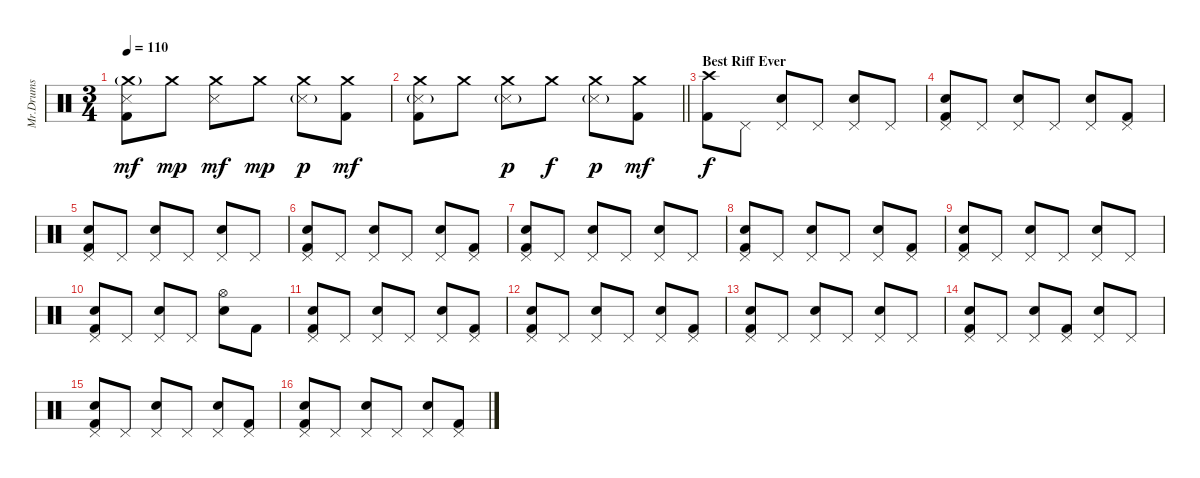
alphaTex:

\track ("Mr.Drums" "Mr.Drums") {instrument percussion}
\staff {score}
\articulation defaults
\ts (3 4)
\tempo 110
\clef neutral
\ks c
("Crash medium (hit)"{g} "Snare (side stick) 3" "Kick (hit) 2").8{dy mf} "Crash medium (hit)".8{dy mp} ("Crash medium (hit)" "Snare (side stick) 3").8{dy mf} "Crash medium (hit)".8{dy mp} ("Crash medium (hit)" "Snare (side stick) 3"{g}).8{dy p} ("Crash medium (hit)" "Kick (hit) 2").8{dy mf} |
\barLineRight lightlight
("Crash medium (hit)" "Snare (side stick) 3"{g} "Kick (hit) 2").8 "Crash medium (hit)".8 ("Crash medium (hit)" "Snare (side stick) 3"{g}).8{dy p} "Crash medium (hit)".8{dy f} ("Crash medium (hit)" "Snare (side stick) 3"{g}).8{dy p} ("Crash medium (hit)" "Kick (hit) 2").8{dy mf} |
\section ("" "Best Riff Ever")
("Crash high (hit)" "Kick (hit) 2").8{dy f} "Pedal Hi-Hat (hit)".8 ("Pedal Hi-Hat (hit)" "Electric Snare (hit)").8 "Pedal Hi-Hat (hit)".8 ("Pedal Hi-Hat (hit)" "Electric Snare (hit)").8 "Pedal Hi-Hat (hit)".8 |
("Pedal Hi-Hat (hit)" "Electric Snare (hit)" "Kick (hit) 2").8 "Pedal Hi-Hat (hit)".8 ("Pedal Hi-Hat (hit)" "Electric Snare (hit)").8 "Pedal Hi-Hat (hit)".8 ("Pedal Hi-Hat (hit)" "Electric Snare (hit)").8 ("Pedal Hi-Hat (hit)" "Kick (hit) 2").8 |
("Pedal Hi-Hat (hit)" "Electric Snare (hit)" "Kick (hit) 2").8 "Pedal Hi-Hat (hit)".8 ("Pedal Hi-Hat (hit)" "Electric Snare (hit)").8 "Pedal Hi-Hat (hit)".8 ("Pedal Hi-Hat (hit)" "Electric Snare (hit)").8 "Pedal Hi-Hat (hit)".8 |
("Pedal Hi-Hat (hit)" "Electric Snare (hit)" "Kick (hit) 2").8 "Pedal Hi-Hat (hit)".8 ("Pedal Hi-Hat (hit)" "Electric Snare (hit)").8 "Pedal Hi-Hat (hit)".8 ("Pedal Hi-Hat (hit)" "Electric Snare (hit)").8 ("Pedal Hi-Hat (hit)" "Kick (hit) 2").8 |
("Pedal Hi-Hat (hit)" "Electric Snare (hit)" "Kick (hit) 2").8 "Pedal Hi-Hat (hit)".8 ("Pedal Hi-Hat (hit)" "Electric Snare (hit)").8 "Pedal Hi-Hat (hit)".8 ("Pedal Hi-Hat (hit)" "Electric Snare (hit)").8 "Pedal Hi-Hat (hit)".8 |
("Pedal Hi-Hat (hit)" "Electric Snare (hit)" "Kick (hit) 2").8 "Pedal Hi-Hat (hit)".8 ("Pedal Hi-Hat (hit)" "Electric Snare (hit)").8 "Pedal Hi-Hat (hit)".8 ("Pedal Hi-Hat (hit)" "Electric Snare (hit)").8 ("Pedal Hi-Hat (hit)" "Kick (hit) 2").8 |
("Pedal Hi-Hat (hit)" "Electric Snare (hit)" "Kick (hit) 2").8 "Pedal Hi-Hat (hit)".8 ("Pedal Hi-Hat (hit)" "Electric Snare (hit)").8 "Pedal Hi-Hat (hit)".8 ("Pedal Hi-Hat (hit)" "Electric Snare (hit)").8 "Pedal Hi-Hat (hit)".8 |
("Pedal Hi-Hat (hit)" "Electric Snare (hit)" "Kick (hit) 2").8 "Pedal Hi-Hat (hit)".8 ("Pedal Hi-Hat (hit)" "Electric Snare (hit)").8 "Pedal Hi-Hat (hit)".8 ("Hi-Hat (open)" "Electric Snare (hit)").8 "Kick (hit) 2".8 |
("Pedal Hi-Hat (hit)" "Electric Snare (hit)" "Kick (hit) 2").8 "Pedal Hi-Hat (hit)".8 ("Pedal Hi-Hat (hit)" "Electric Snare (hit)").8 "Pedal Hi-Hat (hit)".8 ("Pedal Hi-Hat (hit)" "Electric Snare (hit)").8 ("Pedal Hi-Hat (hit)" "Kick (hit) 2").8 |
("Pedal Hi-Hat (hit)" "Electric Snare (hit)" "Kick (hit) 2").8 "Pedal Hi-Hat (hit)".8 ("Pedal Hi-Hat (hit)" "Electric Snare (hit)").8 "Pedal Hi-Hat (hit)".8 ("Pedal Hi-Hat (hit)" "Electric Snare (hit)").8 ("Pedal Hi-Hat (hit)" "Kick (hit) 2").8 |
("Pedal Hi-Hat (hit)" "Electric Snare (hit)" "Kick (hit) 2").8 "Pedal Hi-Hat (hit)".8 ("Pedal Hi-Hat (hit)" "Electric Snare (hit)").8 "Pedal Hi-Hat (hit)".8 ("Pedal Hi-Hat (hit)" "Electric Snare (hit)").8 "Pedal Hi-Hat (hit)".8 |
("Pedal Hi-Hat (hit)" "Electric Snare (hit)" "Kick (hit) 2").8 "Pedal Hi-Hat (hit)".8 ("Pedal Hi-Hat (hit)" "Electric Snare (hit)").8 ("Pedal Hi-Hat (hit)" "Kick (hit) 2").8 ("Pedal Hi-Hat (hit)" "Electric Snare (hit)").8 "Pedal Hi-Hat (hit)".8 |
("Pedal Hi-Hat (hit)" "Electric Snare (hit)" "Kick (hit) 2").8 "Pedal Hi-Hat (hit)".8 ("Pedal Hi-Hat (hit)" "Electric Snare (hit)").8 "Pedal Hi-Hat (hit)".8 ("Pedal Hi-Hat (hit)" "Electric Snare (hit)").8 ("Pedal Hi-Hat (hit)" "Kick (hit) 2").8 |
("Pedal Hi-Hat (hit)" "Electric Snare (hit)" "Kick (hit) 2").8 "Pedal Hi-Hat (hit)".8 ("Pedal Hi-Hat (hit)" "Electric Snare (hit)").8 "Pedal Hi-Hat (hit)".8 ("Pedal Hi-Hat (hit)" "Electric Snare (hit)").8 ("Pedal Hi-Hat (hit)" "Kick (hit) 2").8
